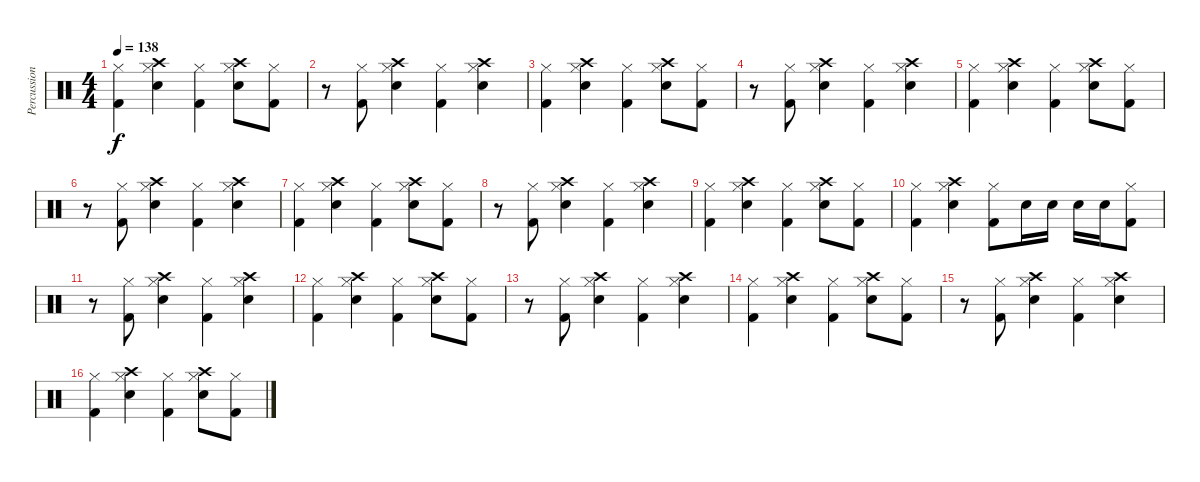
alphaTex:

\track ("Percussion" "Percussion") {instrument percussion}
\staff {score}
\articulation defaults
\ts (4 4)
\tempo 138
\clef neutral
\ks c
("Hi-Hat (closed)" "Kick (hit) 2").4{dy f} ("Hi-Hat (closed)" "Crash high (hit)" "Electric Snare (hit)").4 ("Hi-Hat (closed)" "Kick (hit) 2").4 ("Hi-Hat (closed)" "Crash high (hit)" "Electric Snare (hit)").8 ("Hi-Hat (closed)" "Kick (hit) 2").8 |
r.8 ("Hi-Hat (closed)" "Kick (hit) 2").8 ("Hi-Hat (closed)" "Crash high (hit)" "Electric Snare (hit)").4 ("Hi-Hat (closed)" "Kick (hit) 2").4 ("Hi-Hat (closed)" "Crash high (hit)" "Electric Snare (hit)").4 |
("Hi-Hat (closed)" "Kick (hit) 2").4 ("Hi-Hat (closed)" "Crash high (hit)" "Electric Snare (hit)").4 ("Hi-Hat (closed)" "Kick (hit) 2").4 ("Hi-Hat (closed)" "Crash high (hit)" "Electric Snare (hit)").8 ("Hi-Hat (closed)" "Kick (hit) 2").8 |
r.8 ("Hi-Hat (closed)" "Kick (hit) 2").8 ("Hi-Hat (closed)" "Crash high (hit)" "Electric Snare (hit)").4 ("Hi-Hat (closed)" "Kick (hit) 2").4 ("Hi-Hat (closed)" "Crash high (hit)" "Electric Snare (hit)").4 |
("Hi-Hat (closed)" "Kick (hit) 2").4 ("Hi-Hat (closed)" "Crash high (hit)" "Electric Snare (hit)").4 ("Hi-Hat (closed)" "Kick (hit) 2").4 ("Hi-Hat (closed)" "Crash high (hit)" "Electric Snare (hit)").8 ("Hi-Hat (closed)" "Kick (hit) 2").8 |
r.8 ("Hi-Hat (closed)" "Kick (hit) 2").8 ("Hi-Hat (closed)" "Crash high (hit)" "Electric Snare (hit)").4 ("Hi-Hat (closed)" "Kick (hit) 2").4 ("Hi-Hat (closed)" "Crash high (hit)" "Electric Snare (hit)").4 |
("Hi-Hat (closed)" "Kick (hit) 2").4 ("Hi-Hat (closed)" "Crash high (hit)" "Electric Snare (hit)").4 ("Hi-Hat (closed)" "Kick (hit) 2").4 ("Hi-Hat (closed)" "Crash high (hit)" "Electric Snare (hit)").8 ("Hi-Hat (closed)" "Kick (hit) 2").8 |
r.8 ("Hi-Hat (closed)" "Kick (hit) 2").8 ("Hi-Hat (closed)" "Crash high (hit)" "Electric Snare (hit)").4 ("Hi-Hat (closed)" "Kick (hit) 2").4 ("Hi-Hat (closed)" "Crash high (hit)" "Electric Snare (hit)").4 |
("Hi-Hat (closed)" "Kick (hit) 2").4 ("Hi-Hat (closed)" "Crash high (hit)" "Electric Snare (hit)").4 ("Hi-Hat (closed)" "Kick (hit) 2").4 ("Hi-Hat (closed)" "Crash high (hit)" "Electric Snare (hit)").8 ("Hi-Hat (closed)" "Kick (hit) 2").8 |
("Hi-Hat (closed)" "Kick (hit) 2").4 ("Hi-Hat (closed)" "Crash high (hit)" "Electric Snare (hit)").4 ("Hi-Hat (closed)" "Kick (hit) 2").8 "Electric Snare (hit)".16 "Electric Snare (hit)".16 "Electric Snare (hit)".16 "Electric Snare (hit)".16 ("Hi-Hat (closed)" "Kick (hit) 2").8 |
r.8 ("Hi-Hat (closed)" "Kick (hit) 2").8 ("Hi-Hat (closed)" "Crash high (hit)" "Electric Snare (hit)").4 ("Hi-Hat (closed)" "Kick (hit) 2").4 ("Hi-Hat (closed)" "Crash high (hit)" "Electric Snare (hit)").4 |
("Hi-Hat (closed)" "Kick (hit) 2").4 ("Hi-Hat (closed)" "Crash high (hit)" "Electric Snare (hit)").4 ("Hi-Hat (closed)" "Kick (hit) 2").4 ("Hi-Hat (closed)" "Crash high (hit)" "Electric Snare (hit)").8 ("Hi-Hat (closed)" "Kick (hit) 2").8 |
r.8 ("Hi-Hat (closed)" "Kick (hit) 2").8 ("Hi-Hat (closed)" "Crash high (hit)" "Electric Snare (hit)").4 ("Hi-Hat (closed)" "Kick (hit) 2").4 ("Hi-Hat (closed)" "Crash high (hit)" "Electric Snare (hit)").4 |
("Hi-Hat (closed)" "Kick (hit) 2").4 ("Hi-Hat (closed)" "Crash high (hit)" "Electric Snare (hit)").4 ("Hi-Hat (closed)" "Kick (hit) 2").4 ("Hi-Hat (closed)" "Crash high (hit)" "Electric Snare (hit)").8 ("Hi-Hat (closed)" "Kick (hit) 2").8 |
r.8 ("Hi-Hat (closed)" "Kick (hit) 2").8 ("Hi-Hat (closed)" "Crash high (hit)" "Electric Snare (hit)").4 ("Hi-Hat (closed)" "Kick (hit) 2").4 ("Hi-Hat (closed)" "Crash high (hit)" "Electric Snare (hit)").4 |
("Hi-Hat (closed)" "Kick (hit) 2").4 ("Hi-Hat (closed)" "Crash high (hit)" "Electric Snare (hit)").4 ("Hi-Hat (closed)" "Kick (hit) 2").4 ("Hi-Hat (closed)" "Crash high (hit)" "Electric Snare (hit)").8 ("Hi-Hat (closed)" "Kick (hit) 2").8
